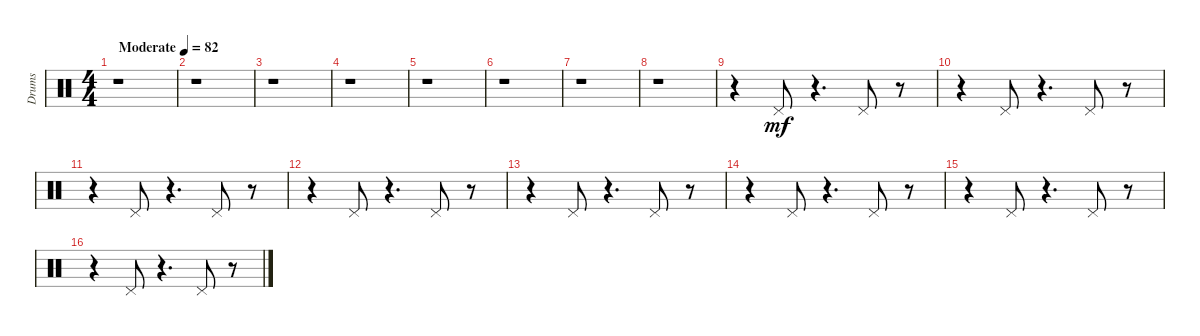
\track ("Drums" "Drums") {instrument percussion}
\staff {score}
\articulation defaults
\ts (4 4)
\tempo (82 "Moderate")
\clef neutral
\ks c
r.1{dy mf} |
r.1 |
r.1 |
r.1 |
r.1 |
r.1 |
r.1 |
r.1 |
r.4 "Pedal Hi-Hat (hit)".8 r.4{d} "Pedal Hi-Hat (hit)".8 r.8 |
r.4 "Pedal Hi-Hat (hit)".8 r.4{d} "Pedal Hi-Hat (hit)".8 r.8 |
r.4 "Pedal Hi-Hat (hit)".8 r.4{d} "Pedal Hi-Hat (hit)".8 r.8 |
r.4 "Pedal Hi-Hat (hit)".8 r.4{d} "Pedal Hi-Hat (hit)".8 r.8 |
r.4 "Pedal Hi-Hat (hit)".8 r.4{d} "Pedal Hi-Hat (hit)".8 r.8 |
r.4 "Pedal Hi-Hat (hit)".8 r.4{d} "Pedal Hi-Hat (hit)".8 r.8 |
r.4 "Pedal Hi-Hat (hit)".8 r.4{d} "Pedal Hi-Hat (hit)".8 r.8 |
r.4 "Pedal Hi-Hat (hit)".8 r.4{d} "Pedal Hi-Hat (hit)".8 r.8
